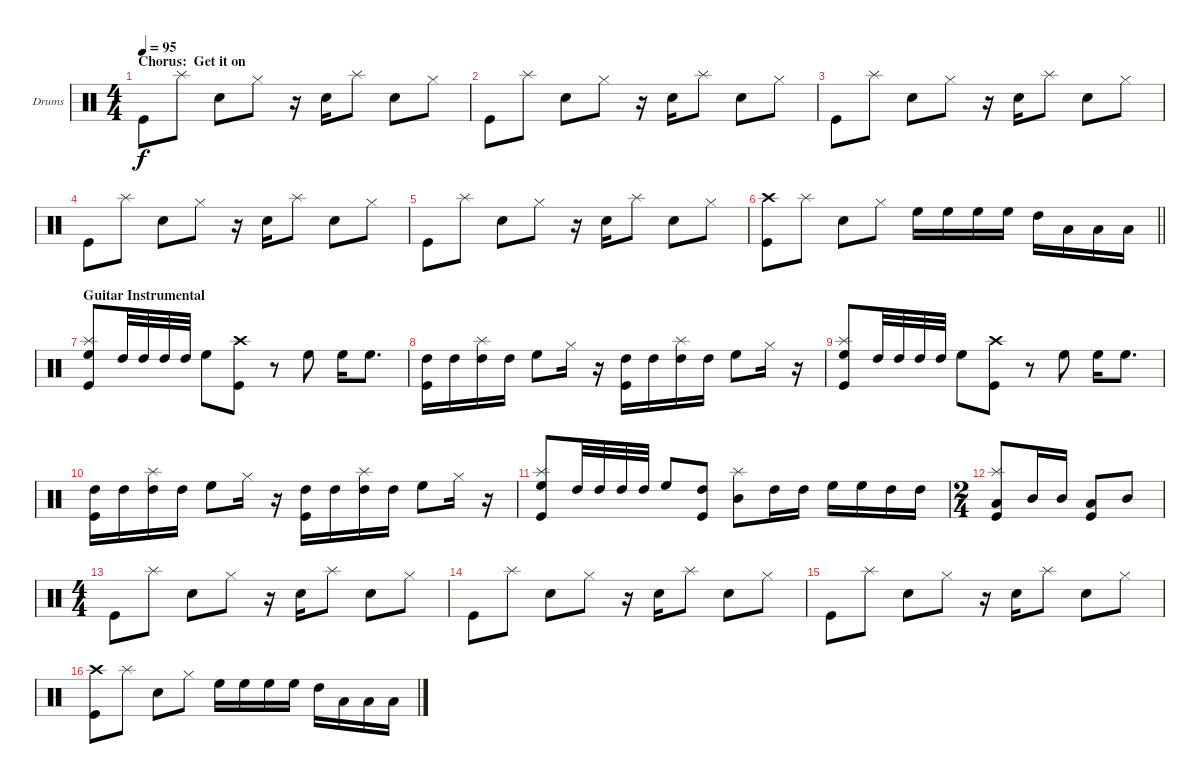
\bracketExtendMode groupsimilarinstruments
\firstSystemTrackNameOrientation horizontal
\otherSystemsTrackNameOrientation horizontal
\track ("Drumkit" "Drums") {instrument percussion}
\staff {score}
\articulation defaults
\ts (4 4)
\section ("" "Chorus:  Get it on")
\tempo 95
\clef neutral
\ks c "Kick (hit)".8{dy f} "Splash (hit)".8 "Snare (hit) 2".8 "Hi-Hat (closed)".8
r.16 "Snare (hit) 2".16 "Splash (hit)".8 "Snare (hit) 2".8 "Hi-Hat (closed)".8 |
"Kick (hit)".8 "Splash (hit)".8 "Snare (hit) 2".8 "Hi-Hat (closed)".8 r.16 "Snare (hit) 2".16 "Splash (hit)".8 "Snare (hit) 2".8 "Hi-Hat (closed)".8 |
"Kick (hit)".8 "Splash (hit)".8 "Snare (hit) 2".8 "Hi-Hat (closed)".8 r.16 "Snare (hit) 2".16 "Splash (hit)".8 "Snare (hit) 2".8 "Hi-Hat (closed)".8 |
"Kick (hit)".8 "Splash (hit)".8 "Snare (hit) 2".8 "Hi-Hat (closed)".8 r.16 "Snare (hit) 2".16 "Splash (hit)".8 "Snare (hit) 2".8 "Hi-Hat (closed)".8 |
"Kick (hit)".8 "Splash (hit)".8 "Snare (hit) 2".8 "Hi-Hat (closed)".8 r.16 "Snare (hit) 2".16 "Splash (hit)".8 "Snare (hit) 2".8 "Hi-Hat (closed)".8 |
\barLineRight lightlight
("Crash high (hit)" "Kick (hit)").8 "Splash (hit)".8 "Snare (hit) 2".8 "Hi-Hat (closed)".8 "High Floor Tom (hit)".16 "High Floor Tom (hit)".16 "High Floor Tom (hit)".16 "High Floor Tom (hit)".16 "High Tom (hit)".16 "Low Tom (hit)".16 "Low Tom (hit)".16 "Low Tom (hit)".16 |
\section ("" "Guitar Instrumental")
("Splash (hit)" "High Floor Tom (hit)" "Kick (hit)").8 "High Tom (hit)".32 "High Tom (hit)".32 "High Tom (hit)".32 "High Tom (hit)".32 "High Floor Tom (hit)".8 ("Crash high (hit)" "Kick (hit)").8 r.8 "High Floor Tom (hit)".8 "High Floor Tom (hit)".16 "High Floor Tom (hit)".8{d} |
("High Tom (hit)" "Kick (hit)").16 "High Tom (hit)".16 ("Splash (hit)" "High Tom (hit)").16 "High Tom (hit)".16 "High Floor Tom (hit)".8 "Hi-Hat (closed)".16 r.16 ("High Tom (hit)" "Kick (hit)").16 "High Tom (hit)".16 ("Splash (hit)" "High Tom (hit)").16 "High Tom (hit)".16 "High Floor Tom (hit)".8 "Hi-Hat (closed)".16 r.16 |
("Splash (hit)" "High Floor Tom (hit)" "Kick (hit)").8 "High Tom (hit)".32 "High Tom (hit)".32 "High Tom (hit)".32 "High Tom (hit)".32 "High Floor Tom (hit)".8 ("Crash high (hit)" "Kick (hit)").8 r.8 "High Floor Tom (hit)".8 "High Floor Tom (hit)".16 "High Floor Tom (hit)".8{d} |
("High Tom (hit)" "Kick (hit)").16 "High Tom (hit)".16 ("Splash (hit)" "High Tom (hit)").16 "High Tom (hit)".16 "High Floor Tom (hit)".8 "Hi-Hat (closed)".16 r.16 ("High Tom (hit)" "Kick (hit)").16 "High Tom (hit)".16 ("Splash (hit)" "High Tom (hit)").16 "High Tom (hit)".16 "High Floor Tom (hit)".8 "Hi-Hat (closed)".16 r.16 |
("Splash (hit)" "High Floor Tom (hit)" "Kick (hit)").8 "High Tom (hit)".32 "High Tom (hit)".32 "High Tom (hit)".32 "High Tom (hit)".32 "High Floor Tom (hit)".8 ("High Tom (hit)" "Kick (hit)").8 ("Splash (hit)" "Mid Tom (hit)").8 "High Tom (hit)".16 "High Tom (hit)".16 "High Floor Tom (hit)".16 "High Floor Tom (hit)".16 "High Tom (hit)".16 "High Tom (hit)".16 |
\ts (2 4)
\beaming (8 2 2)
("Splash (hit)" "Low Tom (hit)" "Kick (hit)").8 "Mid Tom (hit)".16 "Mid Tom (hit)".16 ("Low Tom (hit)" "Kick (hit)").8 "Mid Tom (hit)".8 |
\ts (4 4)
\beaming (8 2 2 2 2)
"Kick (hit)".8 "Splash (hit)".8 "Snare (hit) 2".8 "Hi-Hat (closed)".8 r.16 "Snare (hit) 2".16 "Splash (hit)".8 "Snare (hit) 2".8 "Hi-Hat (closed)".8 |
"Kick (hit)".8 "Splash (hit)".8 "Snare (hit) 2".8 "Hi-Hat (closed)".8 r.16 "Snare (hit) 2".16 "Splash (hit)".8 "Snare (hit) 2".8 "Hi-Hat (closed)".8 |
"Kick (hit)".8 "Splash (hit)".8 "Snare (hit) 2".8 "Hi-Hat (closed)".8 r.16 "Snare (hit) 2".16 "Splash (hit)".8 "Snare (hit) 2".8 "Hi-Hat (closed)".8 |
("Crash high (hit)" "Kick (hit)").8 "Splash (hit)".8 "Snare (hit) 2".8 "Hi-Hat (closed)".8 "High Floor Tom (hit)".16 "High Floor Tom (hit)".16 "High Floor Tom (hit)".16 "High Floor Tom (hit)".16 "High Tom (hit)".16 "Low Tom (hit)".16 "Low Tom (hit)".16 "Low Tom (hit)".16
